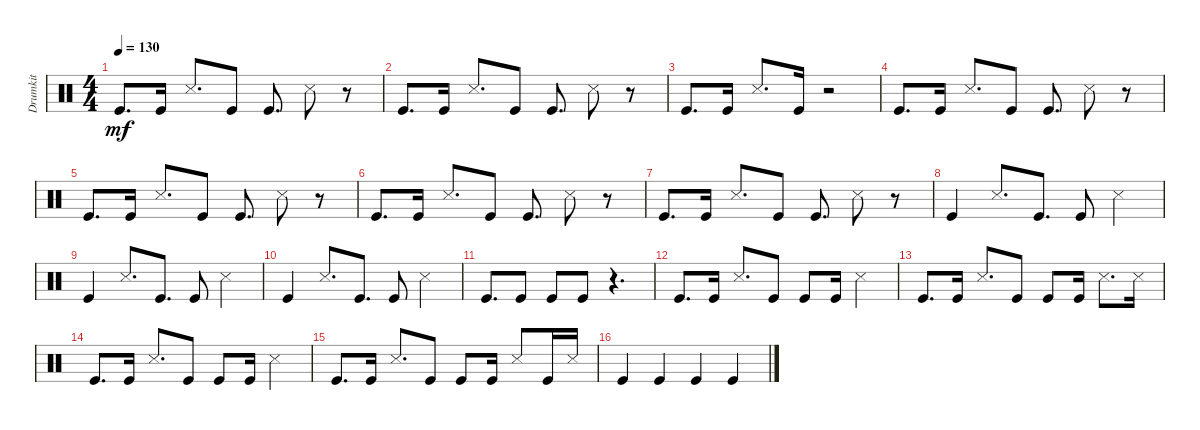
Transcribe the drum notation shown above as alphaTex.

\track ("Drumkit" "Drumkit") {instrument percussion}
\staff {score}
\articulation defaults
\ts (4 4)
\tempo 130
\clef neutral
\ks c "Kick (hit)".8{d dy mf} "Kick (hit)".16 "Snare (side stick) 3".8{d} "Kick (hit)".8 "Kick (hit)".8{d} "Snare (side stick) 3".8
r.8 |
"Kick (hit)".8{d} "Kick (hit)".16 "Snare (side stick) 3".8{d} "Kick (hit)".8 "Kick (hit)".8{d} "Snare (side stick) 3".8 r.8 |
"Kick (hit)".8{d} "Kick (hit)".16 "Snare (side stick) 3".8{d} "Kick (hit)".16 r.2 |
"Kick (hit)".8{d} "Kick (hit)".16 "Snare (side stick) 3".8{d} "Kick (hit)".8 "Kick (hit)".8{d} "Snare (side stick) 3".8 r.8 |
"Kick (hit)".8{d} "Kick (hit)".16 "Snare (side stick) 3".8{d} "Kick (hit)".8 "Kick (hit)".8{d} "Snare (side stick) 3".8 r.8 |
"Kick (hit)".8{d} "Kick (hit)".16 "Snare (side stick) 3".8{d} "Kick (hit)".8 "Kick (hit)".8{d} "Snare (side stick) 3".8 r.8 |
"Kick (hit)".8{d} "Kick (hit)".16 "Snare (side stick) 3".8{d} "Kick (hit)".8 "Kick (hit)".8{d} "Snare (side stick) 3".8 r.8 |
"Kick (hit)".4 "Snare (side stick) 3".8{d} "Kick (hit)".8{d} "Kick (hit)".8 "Snare (side stick) 3".4 |
"Kick (hit)".4 "Snare (side stick) 3".8{d} "Kick (hit)".8{d} "Kick (hit)".8 "Snare (side stick) 3".4 |
"Kick (hit)".4 "Snare (side stick) 3".8{d} "Kick (hit)".8{d} "Kick (hit)".8 "Snare (side stick) 3".4 |
"Kick (hit)".8{d} "Kick (hit)".8 "Kick (hit)".8 "Kick (hit)".8 r.4{d} |
"Kick (hit)".8{d} "Kick (hit)".16 "Snare (side stick) 3".8{d} "Kick (hit)".8 "Kick (hit)".8 "Kick (hit)".16 "Snare (side stick) 3".4 |
"Kick (hit)".8{d} "Kick (hit)".16 "Snare (side stick) 3".8{d} "Kick (hit)".8 "Kick (hit)".8 "Kick (hit)".16 "Snare (side stick) 3".8{d} "Snare (side stick) 3".16 |
"Kick (hit)".8{d} "Kick (hit)".16 "Snare (side stick) 3".8{d} "Kick (hit)".8 "Kick (hit)".8 "Kick (hit)".16 "Snare (side stick) 3".4 |
"Kick (hit)".8{d} "Kick (hit)".16 "Snare (side stick) 3".8{d} "Kick (hit)".8 "Kick (hit)".8 "Kick (hit)".16 "Snare (side stick) 3".8 "Kick (hit)".16 "Snare (side stick) 3".16 |
"Kick (hit)".4 "Kick (hit)".4 "Kick (hit)".4 "Kick (hit)".4
